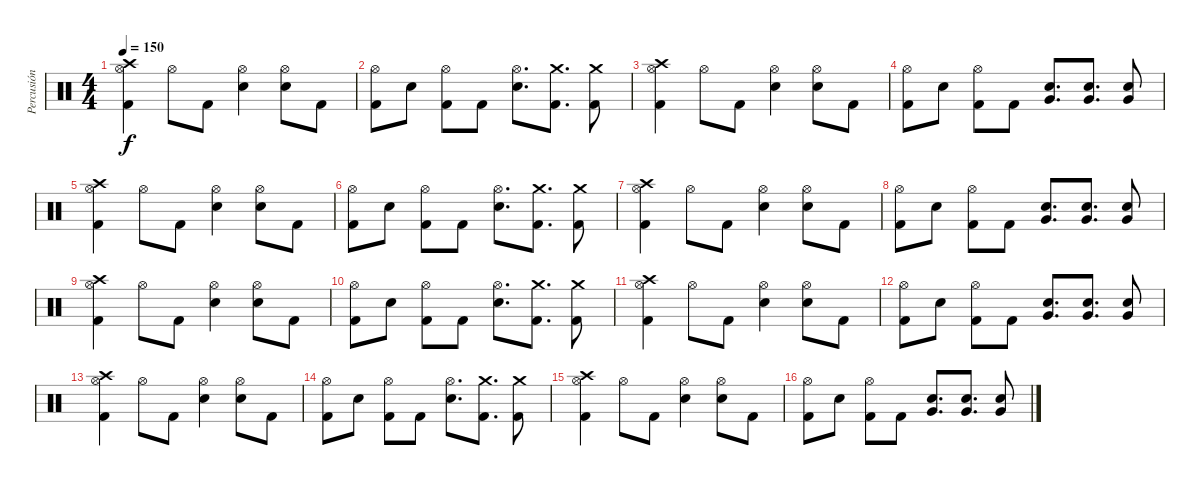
\track ("Percusión" "Percusión") {instrument percussion}
\staff {score}
\articulation defaults
\ts (4 4)
\tempo 150
\clef neutral
\ks c
("Crash high (hit)" "Hi-Hat (open)" "Kick (hit) 2").4{dy f} "Hi-Hat (open)".8 "Kick (hit) 2".8 ("Hi-Hat (open)" "Snare (hit) 2").4 ("Hi-Hat (open)" "Snare (hit) 2").8 "Kick (hit) 2".8 |
("Hi-Hat (open)" "Kick (hit) 2").8 "Snare (hit) 2".8 ("Hi-Hat (open)" "Kick (hit) 2").8 "Kick (hit) 2".8 ("Hi-Hat (open)" "Snare (hit) 2").8{d} ("Crash medium (hit)" "Kick (hit) 2").8{d} ("Crash medium (hit)" "Kick (hit) 2").8 |
("Crash high (hit)" "Hi-Hat (open)" "Kick (hit) 2").4 "Hi-Hat (open)".8 "Kick (hit) 2".8 ("Hi-Hat (open)" "Snare (hit) 2").4 ("Hi-Hat (open)" "Snare (hit) 2").8 "Kick (hit) 2".8 |
("Hi-Hat (open)" "Kick (hit) 2").8 "Snare (hit) 2".8 ("Hi-Hat (open)" "Kick (hit) 2").8 "Kick (hit) 2".8 ("Very Low Tom (hit)" "Snare (hit) 2").8{d} ("Very Low Tom (hit)" "Snare (hit) 2").8{d} ("Very Low Tom (hit)" "Snare (hit) 2").8 |
("Crash high (hit)" "Hi-Hat (open)" "Kick (hit) 2").4 "Hi-Hat (open)".8 "Kick (hit) 2".8 ("Hi-Hat (open)" "Snare (hit) 2").4 ("Hi-Hat (open)" "Snare (hit) 2").8 "Kick (hit) 2".8 |
("Hi-Hat (open)" "Kick (hit) 2").8 "Snare (hit) 2".8 ("Hi-Hat (open)" "Kick (hit) 2").8 "Kick (hit) 2".8 ("Hi-Hat (open)" "Snare (hit) 2").8{d} ("Crash medium (hit)" "Kick (hit) 2").8{d} ("Crash medium (hit)" "Kick (hit) 2").8 |
("Crash high (hit)" "Hi-Hat (open)" "Kick (hit) 2").4 "Hi-Hat (open)".8 "Kick (hit) 2".8 ("Hi-Hat (open)" "Snare (hit) 2").4 ("Hi-Hat (open)" "Snare (hit) 2").8 "Kick (hit) 2".8 |
("Hi-Hat (open)" "Kick (hit) 2").8 "Snare (hit) 2".8 ("Hi-Hat (open)" "Kick (hit) 2").8 "Kick (hit) 2".8 ("Very Low Tom (hit)" "Snare (hit) 2").8{d} ("Very Low Tom (hit)" "Snare (hit) 2").8{d} ("Very Low Tom (hit)" "Snare (hit) 2").8 |
("Crash high (hit)" "Hi-Hat (open)" "Kick (hit) 2").4 "Hi-Hat (open)".8 "Kick (hit) 2".8 ("Hi-Hat (open)" "Snare (hit) 2").4 ("Hi-Hat (open)" "Snare (hit) 2").8 "Kick (hit) 2".8 |
("Hi-Hat (open)" "Kick (hit) 2").8 "Snare (hit) 2".8 ("Hi-Hat (open)" "Kick (hit) 2").8 "Kick (hit) 2".8 ("Hi-Hat (open)" "Snare (hit) 2").8{d} ("Crash medium (hit)" "Kick (hit) 2").8{d} ("Crash medium (hit)" "Kick (hit) 2").8 |
("Crash high (hit)" "Hi-Hat (open)" "Kick (hit) 2").4 "Hi-Hat (open)".8 "Kick (hit) 2".8 ("Hi-Hat (open)" "Snare (hit) 2").4 ("Hi-Hat (open)" "Snare (hit) 2").8 "Kick (hit) 2".8 |
("Hi-Hat (open)" "Kick (hit) 2").8 "Snare (hit) 2".8 ("Hi-Hat (open)" "Kick (hit) 2").8 "Kick (hit) 2".8 ("Very Low Tom (hit)" "Snare (hit) 2").8{d} ("Very Low Tom (hit)" "Snare (hit) 2").8{d} ("Very Low Tom (hit)" "Snare (hit) 2").8 |
("Crash high (hit)" "Hi-Hat (open)" "Kick (hit) 2").4 "Hi-Hat (open)".8 "Kick (hit) 2".8 ("Hi-Hat (open)" "Snare (hit) 2").4 ("Hi-Hat (open)" "Snare (hit) 2").8 "Kick (hit) 2".8 |
("Hi-Hat (open)" "Kick (hit) 2").8 "Snare (hit) 2".8 ("Hi-Hat (open)" "Kick (hit) 2").8 "Kick (hit) 2".8 ("Hi-Hat (open)" "Snare (hit) 2").8{d} ("Crash medium (hit)" "Kick (hit) 2").8{d} ("Crash medium (hit)" "Kick (hit) 2").8 |
("Crash high (hit)" "Hi-Hat (open)" "Kick (hit) 2").4 "Hi-Hat (open)".8 "Kick (hit) 2".8 ("Hi-Hat (open)" "Snare (hit) 2").4 ("Hi-Hat (open)" "Snare (hit) 2").8 "Kick (hit) 2".8 |
("Hi-Hat (open)" "Kick (hit) 2").8 "Snare (hit) 2".8 ("Hi-Hat (open)" "Kick (hit) 2").8 "Kick (hit) 2".8 ("Very Low Tom (hit)" "Snare (hit) 2").8{d} ("Very Low Tom (hit)" "Snare (hit) 2").8{d} ("Very Low Tom (hit)" "Snare (hit) 2").8
